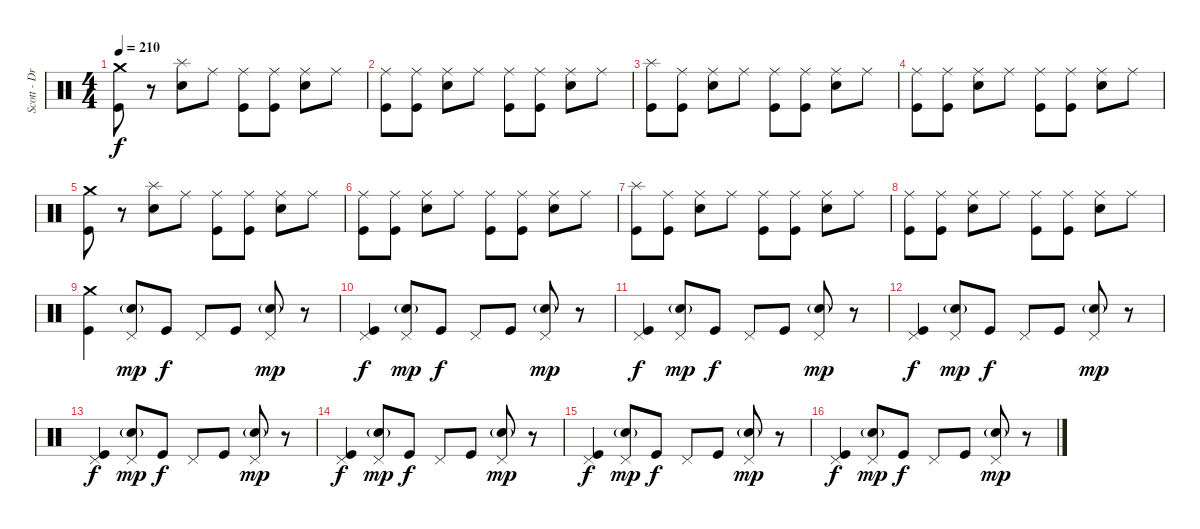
\track ("Scott - Drums" "Scott - Dr") {instrument percussion}
\staff {score}
\articulation defaults
\ts (4 4)
\tempo 210
\clef neutral
\ks c
("Crash medium (hit)" "Kick (hit)").8{dy f} r.8 ("Splash (hit)" "Electric Snare (hit)").8 "Ride (middle)".8 ("Ride (middle)" "Kick (hit)").8 ("Ride (middle)" "Kick (hit)").8 ("Ride (middle)" "Electric Snare (hit)").8 "Ride (middle)".8 |
("Ride (middle)" "Kick (hit)").8 ("Ride (middle)" "Kick (hit)").8 ("Ride (middle)" "Electric Snare (hit)").8 "Ride (middle)".8 ("Ride (middle)" "Kick (hit)").8 ("Ride (middle)" "Kick (hit)").8 ("Ride (middle)" "Electric Snare (hit)").8 "Ride (middle)".8 |
("Splash (hit)" "Kick (hit)").8 ("Ride (middle)" "Kick (hit)").8 ("Ride (middle)" "Electric Snare (hit)").8 "Ride (middle)".8 ("Ride (middle)" "Kick (hit)").8 ("Ride (middle)" "Kick (hit)").8 ("Ride (middle)" "Electric Snare (hit)").8 "Ride (middle)".8 |
("Ride (middle)" "Kick (hit)").8 ("Ride (middle)" "Kick (hit)").8 ("Ride (middle)" "Electric Snare (hit)").8 "Ride (middle)".8 ("Ride (middle)" "Kick (hit)").8 ("Ride (middle)" "Kick (hit)").8 ("Ride (middle)" "Electric Snare (hit)").8 "Ride (middle)".8 |
("Crash medium (hit)" "Kick (hit)").8 r.8 ("Splash (hit)" "Electric Snare (hit)").8 "Ride (middle)".8 ("Ride (middle)" "Kick (hit)").8 ("Ride (middle)" "Kick (hit)").8 ("Ride (middle)" "Electric Snare (hit)").8 "Ride (middle)".8 |
("Ride (middle)" "Kick (hit)").8 ("Ride (middle)" "Kick (hit)").8 ("Ride (middle)" "Electric Snare (hit)").8 "Ride (middle)".8 ("Ride (middle)" "Kick (hit)").8 ("Ride (middle)" "Kick (hit)").8 ("Ride (middle)" "Electric Snare (hit)").8 "Ride (middle)".8 |
("Splash (hit)" "Kick (hit)").8 ("Ride (middle)" "Kick (hit)").8 ("Ride (middle)" "Electric Snare (hit)").8 "Ride (middle)".8 ("Ride (middle)" "Kick (hit)").8 ("Ride (middle)" "Kick (hit)").8 ("Ride (middle)" "Electric Snare (hit)").8 "Ride (middle)".8 |
("Ride (middle)" "Kick (hit)").8 ("Ride (middle)" "Kick (hit)").8 ("Ride (middle)" "Electric Snare (hit)").8 "Ride (middle)".8 ("Ride (middle)" "Kick (hit)").8 ("Ride (middle)" "Kick (hit)").8 ("Ride (middle)" "Electric Snare (hit)").8 "Ride (middle)".8 |
("Crash medium (hit)" "Kick (hit)").4 ("Pedal Hi-Hat (hit)" "Electric Snare (hit)"{g}).8{dy mp} "Kick (hit)".8{dy f} "Pedal Hi-Hat (hit)".8 "Kick (hit)".8 ("Pedal Hi-Hat (hit)" "Electric Snare (hit)"{g}).8{dy mp} r.8 |
("Pedal Hi-Hat (hit)" "Kick (hit)").4{dy f} ("Pedal Hi-Hat (hit)" "Electric Snare (hit)"{g}).8{dy mp} "Kick (hit)".8{dy f} "Pedal Hi-Hat (hit)".8 "Kick (hit)".8 ("Pedal Hi-Hat (hit)" "Electric Snare (hit)"{g}).8{dy mp} r.8 |
("Pedal Hi-Hat (hit)" "Kick (hit)").4{dy f} ("Pedal Hi-Hat (hit)" "Electric Snare (hit)"{g}).8{dy mp} "Kick (hit)".8{dy f} "Pedal Hi-Hat (hit)".8 "Kick (hit)".8 ("Pedal Hi-Hat (hit)" "Electric Snare (hit)"{g}).8{dy mp} r.8 |
("Pedal Hi-Hat (hit)" "Kick (hit)").4{dy f} ("Pedal Hi-Hat (hit)" "Electric Snare (hit)"{g}).8{dy mp} "Kick (hit)".8{dy f} "Pedal Hi-Hat (hit)".8 "Kick (hit)".8 ("Pedal Hi-Hat (hit)" "Electric Snare (hit)"{g}).8{dy mp} r.8 |
("Pedal Hi-Hat (hit)" "Kick (hit)").4{dy f} ("Pedal Hi-Hat (hit)" "Electric Snare (hit)"{g}).8{dy mp} "Kick (hit)".8{dy f} "Pedal Hi-Hat (hit)".8 "Kick (hit)".8 ("Pedal Hi-Hat (hit)" "Electric Snare (hit)"{g}).8{dy mp} r.8 |
("Pedal Hi-Hat (hit)" "Kick (hit)").4{dy f} ("Pedal Hi-Hat (hit)" "Electric Snare (hit)"{g}).8{dy mp} "Kick (hit)".8{dy f} "Pedal Hi-Hat (hit)".8 "Kick (hit)".8 ("Pedal Hi-Hat (hit)" "Electric Snare (hit)"{g}).8{dy mp} r.8 |
("Pedal Hi-Hat (hit)" "Kick (hit)").4{dy f} ("Pedal Hi-Hat (hit)" "Electric Snare (hit)"{g}).8{dy mp} "Kick (hit)".8{dy f} "Pedal Hi-Hat (hit)".8 "Kick (hit)".8 ("Pedal Hi-Hat (hit)" "Electric Snare (hit)"{g}).8{dy mp} r.8 |
("Pedal Hi-Hat (hit)" "Kick (hit)").4{dy f} ("Pedal Hi-Hat (hit)" "Electric Snare (hit)"{g}).8{dy mp} "Kick (hit)".8{dy f} "Pedal Hi-Hat (hit)".8 "Kick (hit)".8 ("Pedal Hi-Hat (hit)" "Electric Snare (hit)"{g}).8{dy mp} r.8
